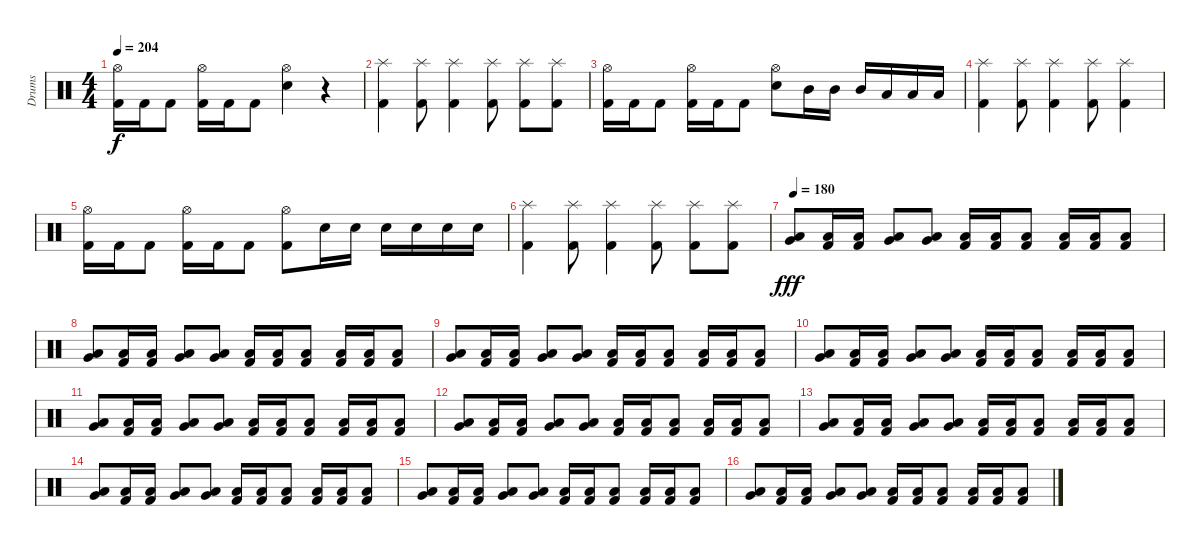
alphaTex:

\track ("Drums" "Drums") {instrument percussion}
\staff {score}
\articulation defaults
\ts (4 4)
\tempo 204
\clef neutral
\ks c
("Hi-Hat (open)" "Kick (hit) 2").16{dy f} "Kick (hit) 2".16 "Kick (hit) 2".8 ("Hi-Hat (open)" "Kick (hit) 2").16 "Kick (hit) 2".16 "Kick (hit) 2".8 ("Hi-Hat (open)" "Electric Snare (hit)").4 r.4 |
("Splash (hit)" "Kick (hit) 2").4 ("Splash (hit)" "Kick (hit) 2").8 ("Splash (hit)" "Kick (hit) 2").4 ("Splash (hit)" "Kick (hit) 2").8 ("Splash (hit)" "Kick (hit) 2").8 ("Splash (hit)" "Kick (hit) 2").8 |
("Hi-Hat (open)" "Kick (hit) 2").16 "Kick (hit) 2".16 "Kick (hit) 2".8 ("Hi-Hat (open)" "Kick (hit) 2").16 "Kick (hit) 2".16 "Kick (hit) 2".8 ("Hi-Hat (open)" "Electric Snare (hit)").8 "Mid Tom (hit)".16 "Mid Tom (hit)".16 "Mid Tom (hit)".16 "Low Tom (hit)".16 "Low Tom (hit)".16 "Low Tom (hit)".16 |
("Splash (hit)" "Kick (hit) 2").4 ("Splash (hit)" "Kick (hit) 2").8 ("Splash (hit)" "Kick (hit) 2").4 ("Splash (hit)" "Kick (hit) 2").8 ("Splash (hit)" "Kick (hit) 2").4 |
("Hi-Hat (open)" "Kick (hit) 2").16 "Kick (hit) 2".16 "Kick (hit) 2".8 ("Hi-Hat (open)" "Kick (hit) 2").16 "Kick (hit) 2".16 "Kick (hit) 2".8 ("Hi-Hat (open)" "Kick (hit) 2").8 "Electric Snare (hit)".16 "Electric Snare (hit)".16 "Electric Snare (hit)".16 "Electric Snare (hit)".16 "Electric Snare (hit)".16 "Electric Snare (hit)".16 |
("Splash (hit)" "Kick (hit) 2").4 ("Splash (hit)" "Kick (hit) 2").8 ("Splash (hit)" "Kick (hit) 2").4 ("Splash (hit)" "Kick (hit) 2").8 ("Splash (hit)" "Kick (hit) 2").8 ("Splash (hit)" "Kick (hit) 2").8 |
\tempo 180
("Low Tom (hit)" "Very Low Tom (hit)").8{dy fff} ("Low Tom (hit)" "Kick (hit) 2").16 ("Low Tom (hit)" "Kick (hit) 2").16 ("Low Tom (hit)" "Very Low Tom (hit)").8 ("Low Tom (hit)" "Very Low Tom (hit)").8 ("Low Tom (hit)" "Kick (hit) 2").16 ("Low Tom (hit)" "Kick (hit) 2").16 ("Low Tom (hit)" "Kick (hit) 2").8 ("Low Tom (hit)" "Kick (hit) 2").16 ("Low Tom (hit)" "Kick (hit) 2").16 ("Low Tom (hit)" "Kick (hit) 2").8 |
("Low Tom (hit)" "Very Low Tom (hit)").8 ("Low Tom (hit)" "Kick (hit) 2").16 ("Low Tom (hit)" "Kick (hit) 2").16 ("Low Tom (hit)" "Very Low Tom (hit)").8 ("Low Tom (hit)" "Very Low Tom (hit)").8 ("Low Tom (hit)" "Kick (hit) 2").16 ("Low Tom (hit)" "Kick (hit) 2").16 ("Low Tom (hit)" "Kick (hit) 2").8 ("Low Tom (hit)" "Kick (hit) 2").16 ("Low Tom (hit)" "Kick (hit) 2").16 ("Low Tom (hit)" "Kick (hit) 2").8 |
("Low Tom (hit)" "Very Low Tom (hit)").8 ("Low Tom (hit)" "Kick (hit) 2").16 ("Low Tom (hit)" "Kick (hit) 2").16 ("Low Tom (hit)" "Very Low Tom (hit)").8 ("Low Tom (hit)" "Very Low Tom (hit)").8 ("Low Tom (hit)" "Kick (hit) 2").16 ("Low Tom (hit)" "Kick (hit) 2").16 ("Low Tom (hit)" "Kick (hit) 2").8 ("Low Tom (hit)" "Kick (hit) 2").16 ("Low Tom (hit)" "Kick (hit) 2").16 ("Low Tom (hit)" "Kick (hit) 2").8 |
("Low Tom (hit)" "Very Low Tom (hit)").8 ("Low Tom (hit)" "Kick (hit) 2").16 ("Low Tom (hit)" "Kick (hit) 2").16 ("Low Tom (hit)" "Very Low Tom (hit)").8 ("Low Tom (hit)" "Very Low Tom (hit)").8 ("Low Tom (hit)" "Kick (hit) 2").16 ("Low Tom (hit)" "Kick (hit) 2").16 ("Low Tom (hit)" "Kick (hit) 2").8 ("Low Tom (hit)" "Kick (hit) 2").16 ("Low Tom (hit)" "Kick (hit) 2").16 ("Low Tom (hit)" "Kick (hit) 2").8 |
("Low Tom (hit)" "Very Low Tom (hit)").8 ("Low Tom (hit)" "Kick (hit) 2").16 ("Low Tom (hit)" "Kick (hit) 2").16 ("Low Tom (hit)" "Very Low Tom (hit)").8 ("Low Tom (hit)" "Very Low Tom (hit)").8 ("Low Tom (hit)" "Kick (hit) 2").16 ("Low Tom (hit)" "Kick (hit) 2").16 ("Low Tom (hit)" "Kick (hit) 2").8 ("Low Tom (hit)" "Kick (hit) 2").16 ("Low Tom (hit)" "Kick (hit) 2").16 ("Low Tom (hit)" "Kick (hit) 2").8 |
("Low Tom (hit)" "Very Low Tom (hit)").8 ("Low Tom (hit)" "Kick (hit) 2").16 ("Low Tom (hit)" "Kick (hit) 2").16 ("Low Tom (hit)" "Very Low Tom (hit)").8 ("Low Tom (hit)" "Very Low Tom (hit)").8 ("Low Tom (hit)" "Kick (hit) 2").16 ("Low Tom (hit)" "Kick (hit) 2").16 ("Low Tom (hit)" "Kick (hit) 2").8 ("Low Tom (hit)" "Kick (hit) 2").16 ("Low Tom (hit)" "Kick (hit) 2").16 ("Low Tom (hit)" "Kick (hit) 2").8 |
("Low Tom (hit)" "Very Low Tom (hit)").8 ("Low Tom (hit)" "Kick (hit) 2").16 ("Low Tom (hit)" "Kick (hit) 2").16 ("Low Tom (hit)" "Very Low Tom (hit)").8 ("Low Tom (hit)" "Very Low Tom (hit)").8 ("Low Tom (hit)" "Kick (hit) 2").16 ("Low Tom (hit)" "Kick (hit) 2").16 ("Low Tom (hit)" "Kick (hit) 2").8 ("Low Tom (hit)" "Kick (hit) 2").16 ("Low Tom (hit)" "Kick (hit) 2").16 ("Low Tom (hit)" "Kick (hit) 2").8 |
("Low Tom (hit)" "Very Low Tom (hit)").8 ("Low Tom (hit)" "Kick (hit) 2").16 ("Low Tom (hit)" "Kick (hit) 2").16 ("Low Tom (hit)" "Very Low Tom (hit)").8 ("Low Tom (hit)" "Very Low Tom (hit)").8 ("Low Tom (hit)" "Kick (hit) 2").16 ("Low Tom (hit)" "Kick (hit) 2").16 ("Low Tom (hit)" "Kick (hit) 2").8 ("Low Tom (hit)" "Kick (hit) 2").16 ("Low Tom (hit)" "Kick (hit) 2").16 ("Low Tom (hit)" "Kick (hit) 2").8 |
("Low Tom (hit)" "Very Low Tom (hit)").8 ("Low Tom (hit)" "Kick (hit) 2").16 ("Low Tom (hit)" "Kick (hit) 2").16 ("Low Tom (hit)" "Very Low Tom (hit)").8 ("Low Tom (hit)" "Very Low Tom (hit)").8 ("Low Tom (hit)" "Kick (hit) 2").16 ("Low Tom (hit)" "Kick (hit) 2").16 ("Low Tom (hit)" "Kick (hit) 2").8 ("Low Tom (hit)" "Kick (hit) 2").16 ("Low Tom (hit)" "Kick (hit) 2").16 ("Low Tom (hit)" "Kick (hit) 2").8 |
("Low Tom (hit)" "Very Low Tom (hit)").8 ("Low Tom (hit)" "Kick (hit) 2").16 ("Low Tom (hit)" "Kick (hit) 2").16 ("Low Tom (hit)" "Very Low Tom (hit)").8 ("Low Tom (hit)" "Very Low Tom (hit)").8 ("Low Tom (hit)" "Kick (hit) 2").16 ("Low Tom (hit)" "Kick (hit) 2").16 ("Low Tom (hit)" "Kick (hit) 2").8 ("Low Tom (hit)" "Kick (hit) 2").16 ("Low Tom (hit)" "Kick (hit) 2").16 ("Low Tom (hit)" "Kick (hit) 2").8
